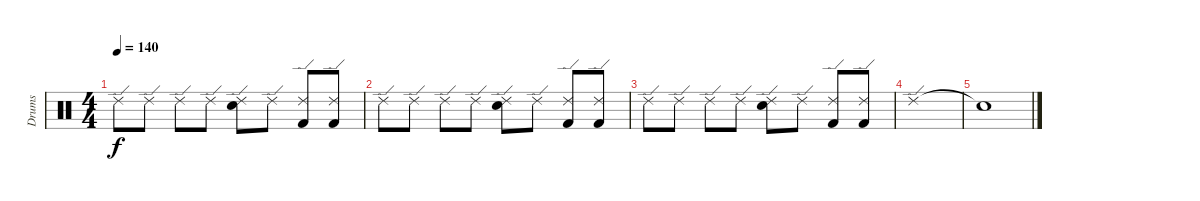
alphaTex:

\track ("Drums" "Drums") {instrument percussion}
\staff {score}
\articulation defaults
\ts (4 4)
\tempo 140
\clef neutral
\ks c "Ride (edge) 2".8{dy f} "Ride (edge) 2".8 "Ride (edge) 2".8 "Ride (edge) 2".8
("Ride (edge) 2" "Snare (hit) 2").8 "Ride (edge) 2".8 ("Ride (edge) 2" "Kick (hit) 2").8 ("Ride (edge) 2" "Kick (hit) 2").8 |
"Ride (edge) 2".8 "Ride (edge) 2".8 "Ride (edge) 2".8 "Ride (edge) 2".8 ("Ride (edge) 2" "Snare (hit) 2").8 "Ride (edge) 2".8 ("Ride (edge) 2" "Kick (hit) 2").8 ("Ride (edge) 2" "Kick (hit) 2").8 |
"Ride (edge) 2".8 "Ride (edge) 2".8 "Ride (edge) 2".8 "Ride (edge) 2".8 ("Ride (edge) 2" "Snare (hit) 2").8 "Ride (edge) 2".8 ("Ride (edge) 2" "Kick (hit) 2").8 ("Ride (edge) 2" "Kick (hit) 2").8 |
"Ride (edge) 2".1 |
"Snare (hit)"{t}.1
